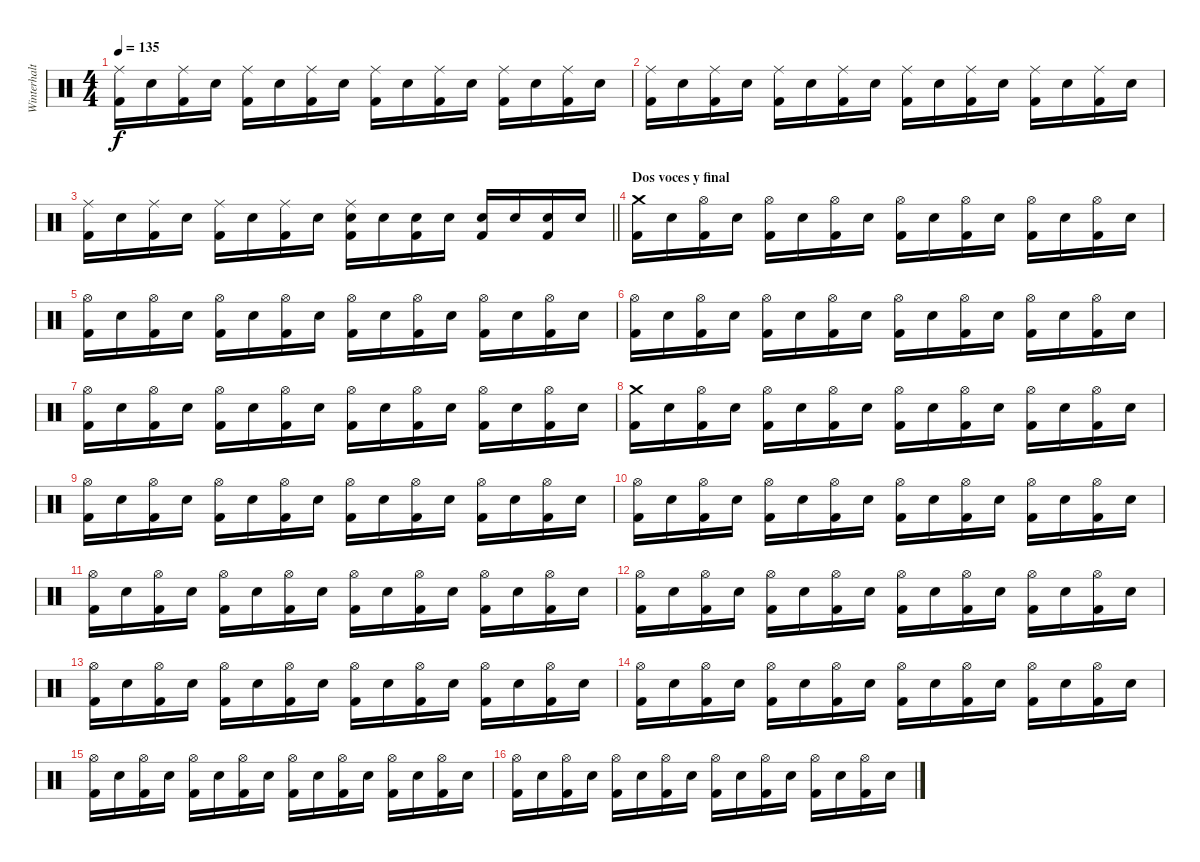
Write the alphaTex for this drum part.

\track ("Winterhalter" "Winterhalt") {instrument percussion}
\staff {score}
\articulation defaults
\ts (4 4)
\tempo 135
\clef neutral
\ks c
("Ride (middle)" "Kick (hit) 2").16{dy f} "Snare (hit) 2".16 ("Ride (middle)" "Kick (hit) 2").16 "Snare (hit) 2".16 ("Ride (middle)" "Kick (hit) 2").16 "Snare (hit) 2".16 ("Ride (middle)" "Kick (hit) 2").16 "Snare (hit) 2".16 ("Ride (middle)" "Kick (hit) 2").16 "Snare (hit) 2".16 ("Ride (middle)" "Kick (hit) 2").16 "Snare (hit) 2".16 ("Ride (middle)" "Kick (hit) 2").16 "Snare (hit) 2".16 ("Ride (middle)" "Kick (hit) 2").16 "Snare (hit) 2".16 |
("Ride (middle)" "Kick (hit) 2").16 "Snare (hit) 2".16 ("Ride (middle)" "Kick (hit) 2").16 "Snare (hit) 2".16 ("Ride (middle)" "Kick (hit) 2").16 "Snare (hit) 2".16 ("Ride (middle)" "Kick (hit) 2").16 "Snare (hit) 2".16 ("Ride (middle)" "Kick (hit) 2").16 "Snare (hit) 2".16 ("Ride (middle)" "Kick (hit) 2").16 "Snare (hit) 2".16 ("Ride (middle)" "Kick (hit) 2").16 "Snare (hit) 2".16 ("Ride (middle)" "Kick (hit) 2").16 "Snare (hit) 2".16 |
\barLineRight lightlight
("Ride (middle)" "Kick (hit) 2").16 "Snare (hit) 2".16 ("Ride (middle)" "Kick (hit) 2").16 "Snare (hit) 2".16 ("Ride (middle)" "Kick (hit) 2").16 "Snare (hit) 2".16 ("Ride (middle)" "Kick (hit) 2").16 "Snare (hit) 2".16 ("Ride (middle)" "Snare (hit) 2" "Kick (hit) 2").16 "Snare (hit) 2".16 ("Snare (hit) 2" "Kick (hit) 2").16 "Snare (hit) 2".16 ("Snare (hit) 2" "Kick (hit) 2").16 "Snare (hit) 2".16 ("Snare (hit) 2" "Kick (hit) 2").16 "Snare (hit) 2".16 |
\section ("" "Dos voces y final")
("Crash medium (hit)" "Kick (hit) 2").16 "Snare (hit) 2".16 ("Hi-Hat (open)" "Kick (hit) 2").16 "Snare (hit) 2".16 ("Hi-Hat (open)" "Kick (hit) 2").16 "Snare (hit) 2".16 ("Hi-Hat (open)" "Kick (hit) 2").16 "Snare (hit) 2".16 ("Hi-Hat (open)" "Kick (hit) 2").16 "Snare (hit) 2".16 ("Hi-Hat (open)" "Kick (hit) 2").16 "Snare (hit) 2".16 ("Hi-Hat (open)" "Kick (hit) 2").16 "Snare (hit) 2".16 ("Hi-Hat (open)" "Kick (hit) 2").16 "Snare (hit) 2".16 |
("Hi-Hat (open)" "Kick (hit) 2").16 "Snare (hit) 2".16 ("Hi-Hat (open)" "Kick (hit) 2").16 "Snare (hit) 2".16 ("Hi-Hat (open)" "Kick (hit) 2").16 "Snare (hit) 2".16 ("Hi-Hat (open)" "Kick (hit) 2").16 "Snare (hit) 2".16 ("Hi-Hat (open)" "Kick (hit) 2").16 "Snare (hit) 2".16 ("Hi-Hat (open)" "Kick (hit) 2").16 "Snare (hit) 2".16 ("Hi-Hat (open)" "Kick (hit) 2").16 "Snare (hit) 2".16 ("Hi-Hat (open)" "Kick (hit) 2").16 "Snare (hit) 2".16 |
("Hi-Hat (open)" "Kick (hit) 2").16 "Snare (hit) 2".16 ("Hi-Hat (open)" "Kick (hit) 2").16 "Snare (hit) 2".16 ("Hi-Hat (open)" "Kick (hit) 2").16 "Snare (hit) 2".16 ("Hi-Hat (open)" "Kick (hit) 2").16 "Snare (hit) 2".16 ("Hi-Hat (open)" "Kick (hit) 2").16 "Snare (hit) 2".16 ("Hi-Hat (open)" "Kick (hit) 2").16 "Snare (hit) 2".16 ("Hi-Hat (open)" "Kick (hit) 2").16 "Snare (hit) 2".16 ("Hi-Hat (open)" "Kick (hit) 2").16 "Snare (hit) 2".16 |
("Hi-Hat (open)" "Kick (hit) 2").16 "Snare (hit) 2".16 ("Hi-Hat (open)" "Kick (hit) 2").16 "Snare (hit) 2".16 ("Hi-Hat (open)" "Kick (hit) 2").16 "Snare (hit) 2".16 ("Hi-Hat (open)" "Kick (hit) 2").16 "Snare (hit) 2".16 ("Hi-Hat (open)" "Kick (hit) 2").16 "Snare (hit) 2".16 ("Hi-Hat (open)" "Kick (hit) 2").16 "Snare (hit) 2".16 ("Hi-Hat (open)" "Kick (hit) 2").16 "Snare (hit) 2".16 ("Hi-Hat (open)" "Kick (hit) 2").16 "Snare (hit) 2".16 |
("Crash medium (hit)" "Kick (hit) 2").16 "Snare (hit) 2".16 ("Hi-Hat (open)" "Kick (hit) 2").16 "Snare (hit) 2".16 ("Hi-Hat (open)" "Kick (hit) 2").16 "Snare (hit) 2".16 ("Hi-Hat (open)" "Kick (hit) 2").16 "Snare (hit) 2".16 ("Hi-Hat (open)" "Kick (hit) 2").16 "Snare (hit) 2".16 ("Hi-Hat (open)" "Kick (hit) 2").16 "Snare (hit) 2".16 ("Hi-Hat (open)" "Kick (hit) 2").16 "Snare (hit) 2".16 ("Hi-Hat (open)" "Kick (hit) 2").16 "Snare (hit) 2".16 |
("Hi-Hat (open)" "Kick (hit) 2").16 "Snare (hit) 2".16 ("Hi-Hat (open)" "Kick (hit) 2").16 "Snare (hit) 2".16 ("Hi-Hat (open)" "Kick (hit) 2").16 "Snare (hit) 2".16 ("Hi-Hat (open)" "Kick (hit) 2").16 "Snare (hit) 2".16 ("Hi-Hat (open)" "Kick (hit) 2").16 "Snare (hit) 2".16 ("Hi-Hat (open)" "Kick (hit) 2").16 "Snare (hit) 2".16 ("Hi-Hat (open)" "Kick (hit) 2").16 "Snare (hit) 2".16 ("Hi-Hat (open)" "Kick (hit) 2").16 "Snare (hit) 2".16 |
("Hi-Hat (open)" "Kick (hit) 2").16 "Snare (hit) 2".16 ("Hi-Hat (open)" "Kick (hit) 2").16 "Snare (hit) 2".16 ("Hi-Hat (open)" "Kick (hit) 2").16 "Snare (hit) 2".16 ("Hi-Hat (open)" "Kick (hit) 2").16 "Snare (hit) 2".16 ("Hi-Hat (open)" "Kick (hit) 2").16 "Snare (hit) 2".16 ("Hi-Hat (open)" "Kick (hit) 2").16 "Snare (hit) 2".16 ("Hi-Hat (open)" "Kick (hit) 2").16 "Snare (hit) 2".16 ("Hi-Hat (open)" "Kick (hit) 2").16 "Snare (hit) 2".16 |
("Hi-Hat (open)" "Kick (hit) 2").16 "Snare (hit) 2".16 ("Hi-Hat (open)" "Kick (hit) 2").16 "Snare (hit) 2".16 ("Hi-Hat (open)" "Kick (hit) 2").16 "Snare (hit) 2".16 ("Hi-Hat (open)" "Kick (hit) 2").16 "Snare (hit) 2".16 ("Hi-Hat (open)" "Kick (hit) 2").16 "Snare (hit) 2".16 ("Hi-Hat (open)" "Kick (hit) 2").16 "Snare (hit) 2".16 ("Hi-Hat (open)" "Kick (hit) 2").16 "Snare (hit) 2".16 ("Hi-Hat (open)" "Kick (hit) 2").16 "Snare (hit) 2".16 |
("Hi-Hat (open)" "Kick (hit) 2").16 "Snare (hit) 2".16 ("Hi-Hat (open)" "Kick (hit) 2").16 "Snare (hit) 2".16 ("Hi-Hat (open)" "Kick (hit) 2").16 "Snare (hit) 2".16 ("Hi-Hat (open)" "Kick (hit) 2").16 "Snare (hit) 2".16 ("Hi-Hat (open)" "Kick (hit) 2").16 "Snare (hit) 2".16 ("Hi-Hat (open)" "Kick (hit) 2").16 "Snare (hit) 2".16 ("Hi-Hat (open)" "Kick (hit) 2").16 "Snare (hit) 2".16 ("Hi-Hat (open)" "Kick (hit) 2").16 "Snare (hit) 2".16 |
("Hi-Hat (open)" "Kick (hit) 2").16 "Snare (hit) 2".16 ("Hi-Hat (open)" "Kick (hit) 2").16 "Snare (hit) 2".16 ("Hi-Hat (open)" "Kick (hit) 2").16 "Snare (hit) 2".16 ("Hi-Hat (open)" "Kick (hit) 2").16 "Snare (hit) 2".16 ("Hi-Hat (open)" "Kick (hit) 2").16 "Snare (hit) 2".16 ("Hi-Hat (open)" "Kick (hit) 2").16 "Snare (hit) 2".16 ("Hi-Hat (open)" "Kick (hit) 2").16 "Snare (hit) 2".16 ("Hi-Hat (open)" "Kick (hit) 2").16 "Snare (hit) 2".16 |
("Hi-Hat (open)" "Kick (hit) 2").16 "Snare (hit) 2".16 ("Hi-Hat (open)" "Kick (hit) 2").16 "Snare (hit) 2".16 ("Hi-Hat (open)" "Kick (hit) 2").16 "Snare (hit) 2".16 ("Hi-Hat (open)" "Kick (hit) 2").16 "Snare (hit) 2".16 ("Hi-Hat (open)" "Kick (hit) 2").16 "Snare (hit) 2".16 ("Hi-Hat (open)" "Kick (hit) 2").16 "Snare (hit) 2".16 ("Hi-Hat (open)" "Kick (hit) 2").16 "Snare (hit) 2".16 ("Hi-Hat (open)" "Kick (hit) 2").16 "Snare (hit) 2".16 |
("Hi-Hat (open)" "Kick (hit) 2").16 "Snare (hit) 2".16 ("Hi-Hat (open)" "Kick (hit) 2").16 "Snare (hit) 2".16 ("Hi-Hat (open)" "Kick (hit) 2").16 "Snare (hit) 2".16 ("Hi-Hat (open)" "Kick (hit) 2").16 "Snare (hit) 2".16 ("Hi-Hat (open)" "Kick (hit) 2").16 "Snare (hit) 2".16 ("Hi-Hat (open)" "Kick (hit) 2").16 "Snare (hit) 2".16 ("Hi-Hat (open)" "Kick (hit) 2").16 "Snare (hit) 2".16 ("Hi-Hat (open)" "Kick (hit) 2").16 "Snare (hit) 2".16 |
("Hi-Hat (open)" "Kick (hit) 2").16 "Snare (hit) 2".16 ("Hi-Hat (open)" "Kick (hit) 2").16 "Snare (hit) 2".16 ("Hi-Hat (open)" "Kick (hit) 2").16 "Snare (hit) 2".16 ("Hi-Hat (open)" "Kick (hit) 2").16 "Snare (hit) 2".16 ("Hi-Hat (open)" "Kick (hit) 2").16 "Snare (hit) 2".16 ("Hi-Hat (open)" "Kick (hit) 2").16 "Snare (hit) 2".16 ("Hi-Hat (open)" "Kick (hit) 2").16 "Snare (hit) 2".16 ("Hi-Hat (open)" "Kick (hit) 2").16 "Snare (hit) 2".16
